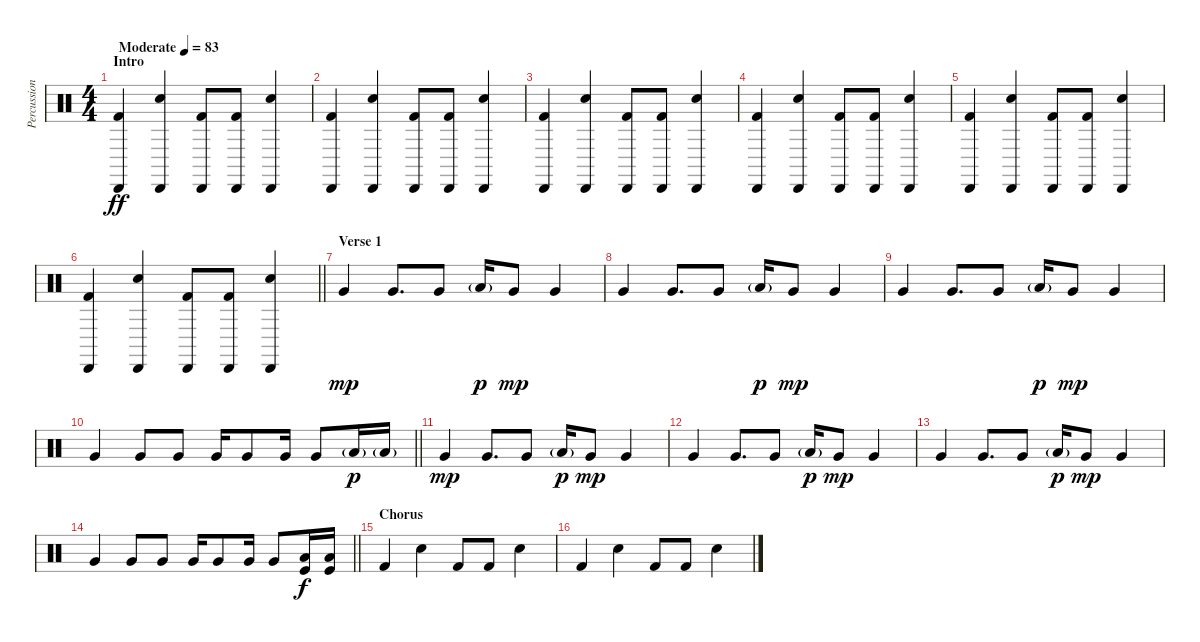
\track ("Percussion" "Percussion") {instrument percussion}
\staff {score}
\articulation defaults
\ts (4 4)
\section ("" "Intro")
\tempo (83 "Moderate")
\clef neutral
\ks c
("Cabasa (hit)" "Kick (hit) 2").4{dy ff} ("Cabasa (hit)" "Electric Snare (hit)").4 ("Cabasa (hit)" "Kick (hit) 2").8 ("Cabasa (hit)" "Kick (hit) 2").8 ("Cabasa (hit)" "Electric Snare (hit)").4 |
("Cabasa (hit)" "Kick (hit) 2").4 ("Cabasa (hit)" "Electric Snare (hit)").4 ("Cabasa (hit)" "Kick (hit) 2").8 ("Cabasa (hit)" "Kick (hit) 2").8 ("Cabasa (hit)" "Electric Snare (hit)").4 |
("Cabasa (hit)" "Kick (hit) 2").4 ("Cabasa (hit)" "Electric Snare (hit)").4 ("Cabasa (hit)" "Kick (hit) 2").8 ("Cabasa (hit)" "Kick (hit) 2").8 ("Cabasa (hit)" "Electric Snare (hit)").4 |
("Cabasa (hit)" "Kick (hit) 2").4 ("Cabasa (hit)" "Electric Snare (hit)").4 ("Cabasa (hit)" "Kick (hit) 2").8 ("Cabasa (hit)" "Kick (hit) 2").8 ("Cabasa (hit)" "Electric Snare (hit)").4 |
("Cabasa (hit)" "Kick (hit) 2").4 ("Cabasa (hit)" "Electric Snare (hit)").4 ("Cabasa (hit)" "Kick (hit) 2").8 ("Cabasa (hit)" "Kick (hit) 2").8 ("Cabasa (hit)" "Electric Snare (hit)").4 |
\barLineRight lightlight
("Cabasa (hit)" "Kick (hit) 2").4 ("Cabasa (hit)" "Electric Snare (hit)").4 ("Cabasa (hit)" "Kick (hit) 2").8 ("Cabasa (hit)" "Kick (hit) 2").8 ("Cabasa (hit)" "Electric Snare (hit)").4 |
\section ("" "Verse 1")
"Very Low Tom (hit)".4{dy mp} "Very Low Tom (hit)".8{d} "Very Low Tom (hit)".8 "Low Floor Tom (hit)"{g}.16{dy p} "Very Low Tom (hit)".8{dy mp} "Very Low Tom (hit)".4 |
"Very Low Tom (hit)".4 "Very Low Tom (hit)".8{d} "Very Low Tom (hit)".8 "Low Floor Tom (hit)"{g}.16{dy p} "Very Low Tom (hit)".8{dy mp} "Very Low Tom (hit)".4 |
"Very Low Tom (hit)".4 "Very Low Tom (hit)".8{d} "Very Low Tom (hit)".8 "Low Floor Tom (hit)"{g}.16{dy p} "Very Low Tom (hit)".8{dy mp} "Very Low Tom (hit)".4 |
\barLineRight lightlight "Very Low Tom (hit)".4 "Very Low Tom (hit)".8 "Very Low Tom (hit)".8 "Very Low Tom (hit)".16 "Very Low Tom (hit)".8 "Very Low Tom (hit)".16 "Very Low Tom (hit)".8 "Low Floor Tom (hit)"{g}.16{dy p} "Low Floor Tom (hit)"{g}.16
|
"Very Low Tom (hit)".4{dy mp} "Very Low Tom (hit)".8{d} "Very Low Tom (hit)".8 "Low Floor Tom (hit)"{g}.16{dy p} "Very Low Tom (hit)".8{dy mp} "Very Low Tom (hit)".4 |
"Very Low Tom (hit)".4 "Very Low Tom (hit)".8{d} "Very Low Tom (hit)".8 "Low Floor Tom (hit)"{g}.16{dy p} "Very Low Tom (hit)".8{dy mp} "Very Low Tom (hit)".4 |
"Very Low Tom (hit)".4 "Very Low Tom (hit)".8{d} "Very Low Tom (hit)".8 "Low Floor Tom (hit)"{g}.16{dy p} "Very Low Tom (hit)".8{dy mp} "Very Low Tom (hit)".4 |
\barLineRight lightlight "Very Low Tom (hit)".4 "Very Low Tom (hit)".8 "Very Low Tom (hit)".8 "Very Low Tom (hit)".16 "Very Low Tom (hit)".8 "Very Low Tom (hit)".16 "Very Low Tom (hit)".8
("Kick (hit)" "Low Floor Tom (hit)").16{dy f} ("Kick (hit)" "Low Floor Tom (hit)").16 |
\section ("" "Chorus")
"Kick (hit) 2".4 "Electric Snare (hit)".4 "Kick (hit) 2".8 "Kick (hit) 2".8 "Electric Snare (hit)".4 |
"Kick (hit) 2".4 "Electric Snare (hit)".4 "Kick (hit) 2".8 "Kick (hit) 2".8 "Electric Snare (hit)".4
